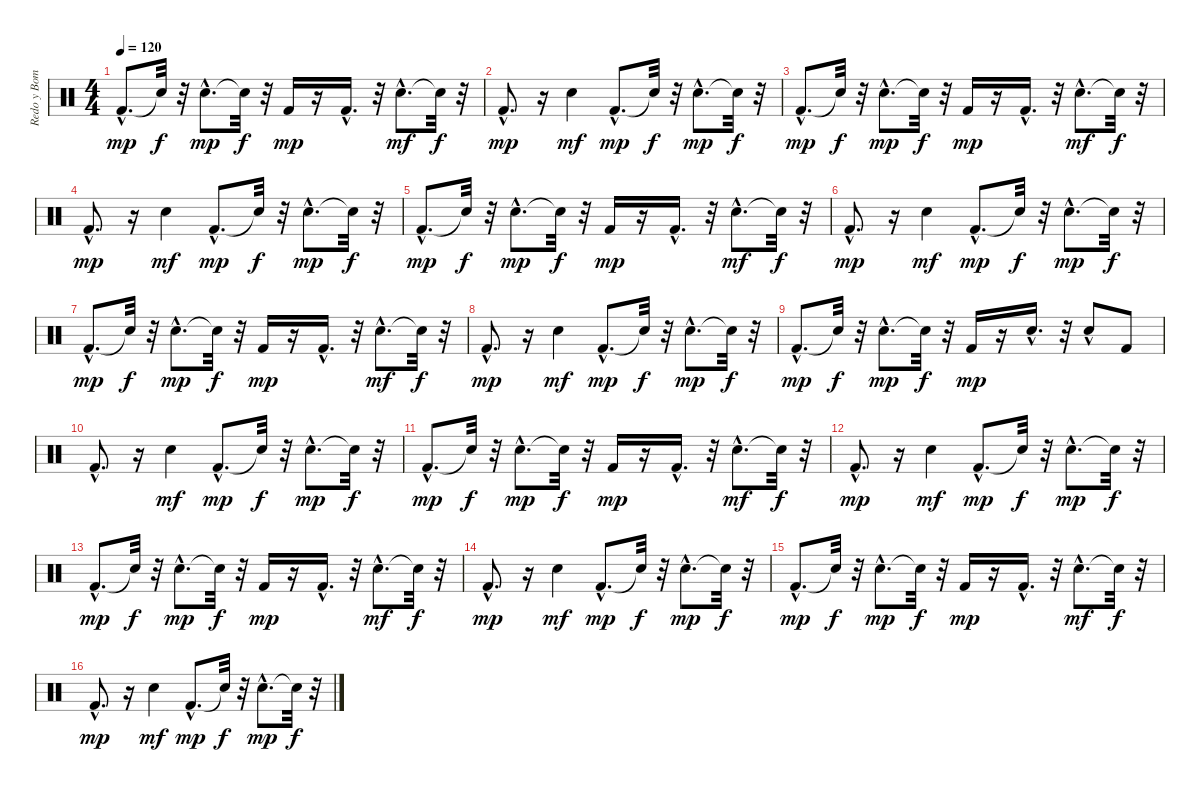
\track ("Redo y Bombo" "Redo y Bom") {instrument percussion}
\staff {score}
\articulation defaults
\ts (4 4)
\tempo 120
\clef neutral
\ks c "Kick (hit) 2"{hac}.8{d dy mp} "Snare (hit)"{t}.32{dy f}
r.32 "Snare (hit) 2"{hac}.8{d dy mp} "Snare (hit)"{t}.32{dy f} r.32 "Kick (hit) 2".16{dy mp} r.16 "Kick (hit) 2"{hac}.16{d} r.32 "Snare (hit) 2"{hac}.8{d dy mf} "Snare (hit)"{t}.32{dy f} r.32 |
"Kick (hit) 2"{hac}.8{d dy mp} r.16 "Snare (hit) 2".4{dy mf} "Kick (hit) 2"{hac}.8{d dy mp} "Snare (hit)"{t}.32{dy f} r.32 "Snare (hit) 2"{hac}.8{d dy mp} "Snare (hit)"{t}.32{dy f} r.32 |
"Kick (hit) 2"{hac}.8{d dy mp} "Snare (hit)"{t}.32{dy f} r.32 "Snare (hit) 2"{hac}.8{d dy mp} "Snare (hit)"{t}.32{dy f} r.32 "Kick (hit) 2".16{dy mp} r.16 "Kick (hit) 2"{hac}.16{d} r.32 "Snare (hit) 2"{hac}.8{d dy mf} "Snare (hit)"{t}.32{dy f} r.32 |
"Kick (hit) 2"{hac}.8{d dy mp} r.16 "Snare (hit) 2".4{dy mf} "Kick (hit) 2"{hac}.8{d dy mp} "Snare (hit)"{t}.32{dy f} r.32 "Snare (hit) 2"{hac}.8{d dy mp} "Snare (hit)"{t}.32{dy f} r.32 |
"Kick (hit) 2"{hac}.8{d dy mp} "Snare (hit)"{t}.32{dy f} r.32 "Snare (hit) 2"{hac}.8{d dy mp} "Snare (hit)"{t}.32{dy f} r.32 "Kick (hit) 2".16{dy mp} r.16 "Kick (hit) 2"{hac}.16{d} r.32 "Snare (hit) 2"{hac}.8{d dy mf} "Snare (hit)"{t}.32{dy f} r.32 |
"Kick (hit) 2"{hac}.8{d dy mp} r.16 "Snare (hit) 2".4{dy mf} "Kick (hit) 2"{hac}.8{d dy mp} "Snare (hit)"{t}.32{dy f} r.32 "Snare (hit) 2"{hac}.8{d dy mp} "Snare (hit)"{t}.32{dy f} r.32 |
"Kick (hit) 2"{hac}.8{d dy mp} "Snare (hit)"{t}.32{dy f} r.32 "Snare (hit) 2"{hac}.8{d dy mp} "Snare (hit)"{t}.32{dy f} r.32 "Kick (hit) 2".16{dy mp} r.16 "Kick (hit) 2"{hac}.16{d} r.32 "Snare (hit) 2"{hac}.8{d dy mf} "Snare (hit)"{t}.32{dy f} r.32 |
"Kick (hit) 2"{hac}.8{d dy mp} r.16 "Snare (hit) 2".4{dy mf} "Kick (hit) 2"{hac}.8{d dy mp} "Snare (hit)"{t}.32{dy f} r.32 "Snare (hit) 2"{hac}.8{d dy mp} "Snare (hit)"{t}.32{dy f} r.32 |
"Kick (hit) 2"{hac}.8{d dy mp} "Snare (hit)"{t}.32{dy f} r.32 "Snare (hit) 2"{hac}.8{d dy mp} "Snare (hit)"{t}.32{dy f} r.32 "Kick (hit) 2".16{dy mp} r.16 "Snare (hit) 2"{hac}.16{d} r.32 "Snare (hit) 2"{hac}.8 "Kick (hit) 2".8 |
"Kick (hit) 2"{hac}.8{d} r.16 "Snare (hit) 2".4{dy mf} "Kick (hit) 2"{hac}.8{d dy mp} "Snare (hit)"{t}.32{dy f} r.32 "Snare (hit) 2"{hac}.8{d dy mp} "Snare (hit)"{t}.32{dy f} r.32 |
"Kick (hit) 2"{hac}.8{d dy mp} "Snare (hit)"{t}.32{dy f} r.32 "Snare (hit) 2"{hac}.8{d dy mp} "Snare (hit)"{t}.32{dy f} r.32 "Kick (hit) 2".16{dy mp} r.16 "Kick (hit) 2"{hac}.16{d} r.32 "Snare (hit) 2"{hac}.8{d dy mf} "Snare (hit)"{t}.32{dy f} r.32 |
"Kick (hit) 2"{hac}.8{d dy mp} r.16 "Snare (hit) 2".4{dy mf} "Kick (hit) 2"{hac}.8{d dy mp} "Snare (hit)"{t}.32{dy f} r.32 "Snare (hit) 2"{hac}.8{d dy mp} "Snare (hit)"{t}.32{dy f} r.32 |
"Kick (hit) 2"{hac}.8{d dy mp} "Snare (hit)"{t}.32{dy f} r.32 "Snare (hit) 2"{hac}.8{d dy mp} "Snare (hit)"{t}.32{dy f} r.32 "Kick (hit) 2".16{dy mp} r.16 "Kick (hit) 2"{hac}.16{d} r.32 "Snare (hit) 2"{hac}.8{d dy mf} "Snare (hit)"{t}.32{dy f} r.32 |
"Kick (hit) 2"{hac}.8{d dy mp} r.16 "Snare (hit) 2".4{dy mf} "Kick (hit) 2"{hac}.8{d dy mp} "Snare (hit)"{t}.32{dy f} r.32 "Snare (hit) 2"{hac}.8{d dy mp} "Snare (hit)"{t}.32{dy f} r.32 |
"Kick (hit) 2"{hac}.8{d dy mp} "Snare (hit)"{t}.32{dy f} r.32 "Snare (hit) 2"{hac}.8{d dy mp} "Snare (hit)"{t}.32{dy f} r.32 "Kick (hit) 2".16{dy mp} r.16 "Kick (hit) 2"{hac}.16{d} r.32 "Snare (hit) 2"{hac}.8{d dy mf} "Snare (hit)"{t}.32{dy f} r.32 |
"Kick (hit) 2"{hac}.8{d dy mp} r.16 "Snare (hit) 2".4{dy mf} "Kick (hit) 2"{hac}.8{d dy mp} "Snare (hit)"{t}.32{dy f} r.32 "Snare (hit) 2"{hac}.8{d dy mp} "Snare (hit)"{t}.32{dy f} r.32
